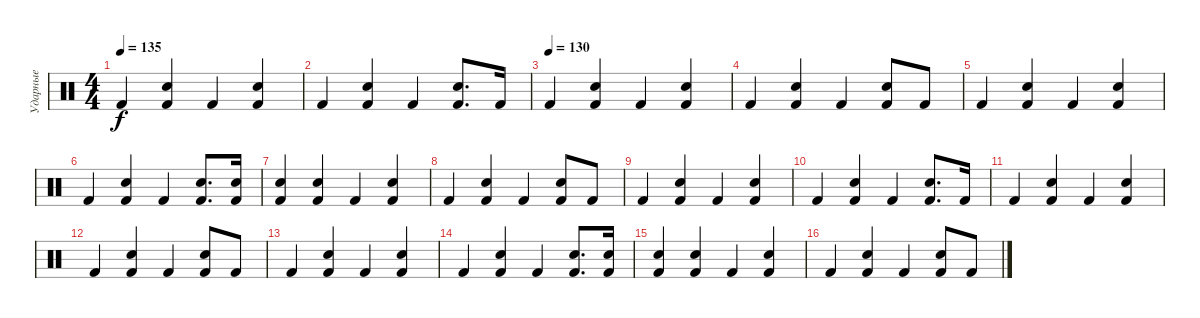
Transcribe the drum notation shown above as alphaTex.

\track ("Ударные" "Ударные") {instrument percussion}
\staff {score}
\articulation defaults
\ts (4 4)
\tempo 135
\clef neutral
\ks c "Kick (hit) 2".4{dy f}
("Hand Clap (hit)" "Kick (hit) 2").4 "Kick (hit) 2".4 ("Hand Clap (hit)" "Kick (hit) 2").4 |
"Kick (hit) 2".4 ("Hand Clap (hit)" "Kick (hit) 2").4 "Kick (hit) 2".4 ("Hand Clap (hit)" "Kick (hit) 2").8{d} "Kick (hit) 2".16 |
\tempo (130)
"Kick (hit) 2".4 ("Hand Clap (hit)" "Kick (hit) 2").4 "Kick (hit) 2".4 ("Hand Clap (hit)" "Kick (hit) 2").4 |
"Kick (hit) 2".4 ("Hand Clap (hit)" "Kick (hit) 2").4 "Kick (hit) 2".4 ("Hand Clap (hit)" "Kick (hit) 2").8 "Kick (hit) 2".8 |
"Kick (hit) 2".4 ("Hand Clap (hit)" "Kick (hit) 2").4 "Kick (hit) 2".4 ("Hand Clap (hit)" "Kick (hit) 2").4 |
"Kick (hit) 2".4 ("Hand Clap (hit)" "Kick (hit) 2").4 "Kick (hit) 2".4 ("Hand Clap (hit)" "Kick (hit) 2").8{d} ("Hand Clap (hit)" "Kick (hit) 2").16 |
("Hand Clap (hit)" "Kick (hit) 2").4 ("Hand Clap (hit)" "Kick (hit) 2").4 "Kick (hit) 2".4 ("Hand Clap (hit)" "Kick (hit) 2").4 |
"Kick (hit) 2".4 ("Hand Clap (hit)" "Kick (hit) 2").4 "Kick (hit) 2".4 ("Hand Clap (hit)" "Kick (hit) 2").8 "Kick (hit) 2".8 |
"Kick (hit) 2".4 ("Hand Clap (hit)" "Kick (hit) 2").4 "Kick (hit) 2".4 ("Hand Clap (hit)" "Kick (hit) 2").4 |
"Kick (hit) 2".4 ("Hand Clap (hit)" "Kick (hit) 2").4 "Kick (hit) 2".4 ("Hand Clap (hit)" "Kick (hit) 2").8{d} "Kick (hit) 2".16 |
"Kick (hit) 2".4 ("Hand Clap (hit)" "Kick (hit) 2").4 "Kick (hit) 2".4 ("Hand Clap (hit)" "Kick (hit) 2").4 |
"Kick (hit) 2".4 ("Hand Clap (hit)" "Kick (hit) 2").4 "Kick (hit) 2".4 ("Hand Clap (hit)" "Kick (hit) 2").8 "Kick (hit) 2".8 |
"Kick (hit) 2".4 ("Hand Clap (hit)" "Kick (hit) 2").4 "Kick (hit) 2".4 ("Hand Clap (hit)" "Kick (hit) 2").4 |
"Kick (hit) 2".4 ("Hand Clap (hit)" "Kick (hit) 2").4 "Kick (hit) 2".4 ("Hand Clap (hit)" "Kick (hit) 2").8{d} ("Hand Clap (hit)" "Kick (hit) 2").16 |
("Hand Clap (hit)" "Kick (hit) 2").4 ("Hand Clap (hit)" "Kick (hit) 2").4 "Kick (hit) 2".4 ("Hand Clap (hit)" "Kick (hit) 2").4 |
"Kick (hit) 2".4 ("Hand Clap (hit)" "Kick (hit) 2").4 "Kick (hit) 2".4 ("Hand Clap (hit)" "Kick (hit) 2").8 "Kick (hit) 2".8
